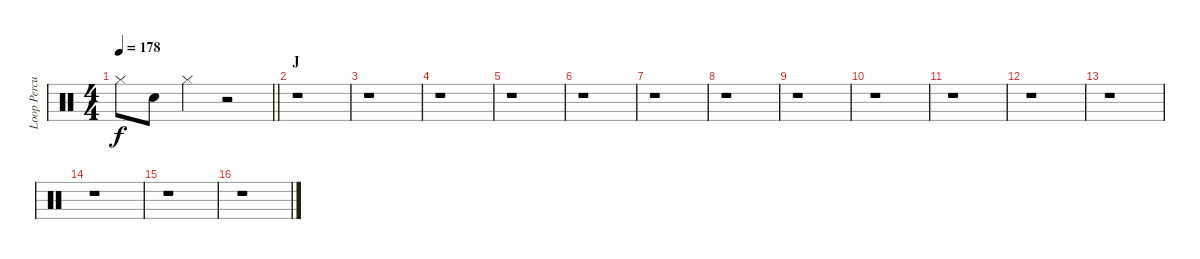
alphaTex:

\track ("Loop Percussion" "Loop Percu") {instrument percussion}
\staff {score}
\articulation defaults
\ts (4 4)
\tempo 178
\clef neutral
\barLineRight lightlight
\ks c "Hi-Hat (closed)".8{dy f} "Electric Snare (hit)".8 "Hi-Hat (closed)".4
r.2 |
\section ("" "J")
r.1 |
r.1 |
r.1 |
r.1 |
r.1 |
r.1 |
r.1 |
r.1 |
r.1 |
r.1 |
r.1 |
r.1 |
r.1 |
r.1 |
r.1
